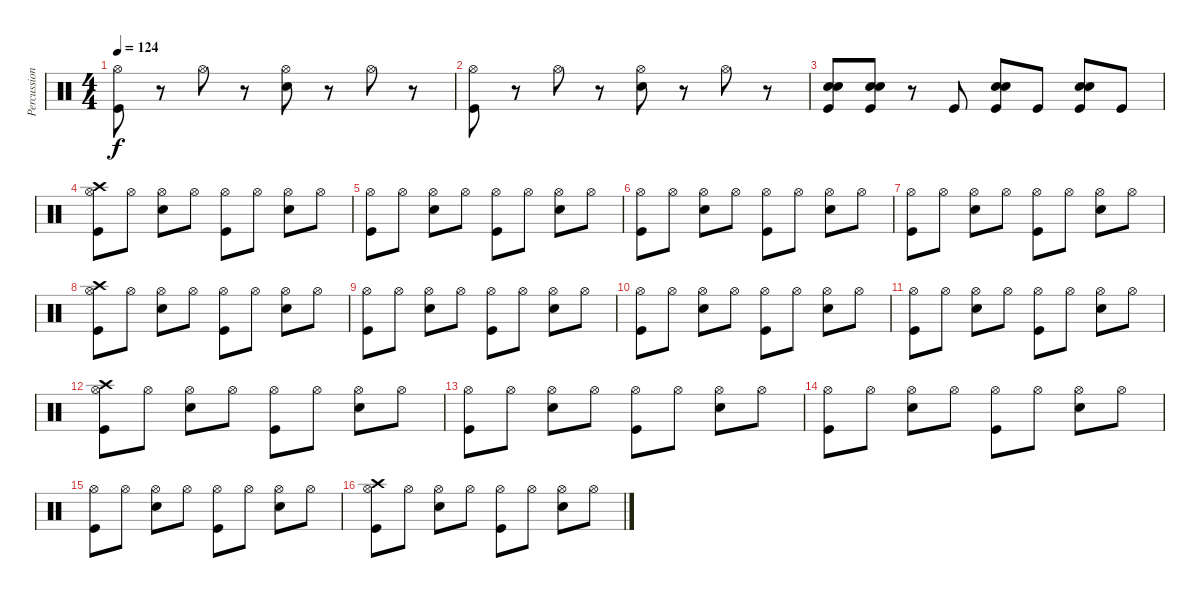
\track ("Percussions" "Percussion") {instrument percussion}
\staff {score}
\articulation defaults
\ts (4 4)
\tempo 124
\clef neutral
\ks c
("Hi-Hat (open)" "Kick (hit)").8{dy f} r.8 "Hi-Hat (open)".8 r.8 ("Hi-Hat (open)" "Electric Snare (hit)").8 r.8 "Hi-Hat (open)".8 r.8 |
("Hi-Hat (open)" "Kick (hit)").8 r.8 "Hi-Hat (open)".8 r.8 ("Hi-Hat (open)" "Electric Snare (hit)").8 r.8 "Hi-Hat (open)".8 r.8 |
("Snare (hit) 2" "Kick (hit)" "Electric Snare (hit)").8 ("Snare (hit) 2" "Kick (hit)" "Electric Snare (hit)").8 r.8 "Kick (hit)".8 ("Snare (hit) 2" "Kick (hit)" "Electric Snare (hit)").8 "Kick (hit)".8 ("Snare (hit) 2" "Kick (hit)" "Electric Snare (hit)").8 "Kick (hit)".8 |
("Hi-Hat (open)" "Kick (hit)" "Crash high (hit)").8 "Hi-Hat (open)".8 ("Hi-Hat (open)" "Electric Snare (hit)").8 "Hi-Hat (open)".8 ("Hi-Hat (open)" "Kick (hit)").8 "Hi-Hat (open)".8 ("Hi-Hat (open)" "Electric Snare (hit)").8 "Hi-Hat (open)".8 |
("Hi-Hat (open)" "Kick (hit)").8 "Hi-Hat (open)".8 ("Hi-Hat (open)" "Electric Snare (hit)").8 "Hi-Hat (open)".8 ("Hi-Hat (open)" "Kick (hit)").8 "Hi-Hat (open)".8 ("Hi-Hat (open)" "Electric Snare (hit)").8 "Hi-Hat (open)".8 |
("Hi-Hat (open)" "Kick (hit)").8 "Hi-Hat (open)".8 ("Hi-Hat (open)" "Electric Snare (hit)").8 "Hi-Hat (open)".8 ("Hi-Hat (open)" "Kick (hit)").8 "Hi-Hat (open)".8 ("Hi-Hat (open)" "Electric Snare (hit)").8 "Hi-Hat (open)".8 |
("Hi-Hat (open)" "Kick (hit)").8 "Hi-Hat (open)".8 ("Hi-Hat (open)" "Electric Snare (hit)").8 "Hi-Hat (open)".8 ("Hi-Hat (open)" "Kick (hit)").8 "Hi-Hat (open)".8 ("Hi-Hat (open)" "Electric Snare (hit)").8 "Hi-Hat (open)".8 |
("Hi-Hat (open)" "Kick (hit)" "Crash high (hit)").8 "Hi-Hat (open)".8 ("Hi-Hat (open)" "Electric Snare (hit)").8 "Hi-Hat (open)".8 ("Hi-Hat (open)" "Kick (hit)").8 "Hi-Hat (open)".8 ("Hi-Hat (open)" "Electric Snare (hit)").8 "Hi-Hat (open)".8 |
("Hi-Hat (open)" "Kick (hit)").8 "Hi-Hat (open)".8 ("Hi-Hat (open)" "Electric Snare (hit)").8 "Hi-Hat (open)".8 ("Hi-Hat (open)" "Kick (hit)").8 "Hi-Hat (open)".8 ("Hi-Hat (open)" "Electric Snare (hit)").8 "Hi-Hat (open)".8 |
("Hi-Hat (open)" "Kick (hit)").8 "Hi-Hat (open)".8 ("Hi-Hat (open)" "Electric Snare (hit)").8 "Hi-Hat (open)".8 ("Hi-Hat (open)" "Kick (hit)").8 "Hi-Hat (open)".8 ("Hi-Hat (open)" "Electric Snare (hit)").8 "Hi-Hat (open)".8 |
("Hi-Hat (open)" "Kick (hit)").8 "Hi-Hat (open)".8 ("Hi-Hat (open)" "Electric Snare (hit)").8 "Hi-Hat (open)".8 ("Hi-Hat (open)" "Kick (hit)").8 "Hi-Hat (open)".8 ("Hi-Hat (open)" "Electric Snare (hit)").8 "Hi-Hat (open)".8 |
("Hi-Hat (open)" "Kick (hit)" "Crash high (hit)").8 "Hi-Hat (open)".8 ("Hi-Hat (open)" "Electric Snare (hit)").8 "Hi-Hat (open)".8 ("Hi-Hat (open)" "Kick (hit)").8 "Hi-Hat (open)".8 ("Hi-Hat (open)" "Electric Snare (hit)").8 "Hi-Hat (open)".8 |
("Hi-Hat (open)" "Kick (hit)").8 "Hi-Hat (open)".8 ("Hi-Hat (open)" "Electric Snare (hit)").8 "Hi-Hat (open)".8 ("Hi-Hat (open)" "Kick (hit)").8 "Hi-Hat (open)".8 ("Hi-Hat (open)" "Electric Snare (hit)").8 "Hi-Hat (open)".8 |
("Hi-Hat (open)" "Kick (hit)").8 "Hi-Hat (open)".8 ("Hi-Hat (open)" "Electric Snare (hit)").8 "Hi-Hat (open)".8 ("Hi-Hat (open)" "Kick (hit)").8 "Hi-Hat (open)".8 ("Hi-Hat (open)" "Electric Snare (hit)").8 "Hi-Hat (open)".8 |
("Hi-Hat (open)" "Kick (hit)").8 "Hi-Hat (open)".8 ("Hi-Hat (open)" "Electric Snare (hit)").8 "Hi-Hat (open)".8 ("Hi-Hat (open)" "Kick (hit)").8 "Hi-Hat (open)".8 ("Hi-Hat (open)" "Electric Snare (hit)").8 "Hi-Hat (open)".8 |
("Hi-Hat (open)" "Kick (hit)" "Crash high (hit)").8 "Hi-Hat (open)".8 ("Hi-Hat (open)" "Electric Snare (hit)").8 "Hi-Hat (open)".8 ("Hi-Hat (open)" "Kick (hit)").8 "Hi-Hat (open)".8 ("Hi-Hat (open)" "Electric Snare (hit)").8 "Hi-Hat (open)".8
